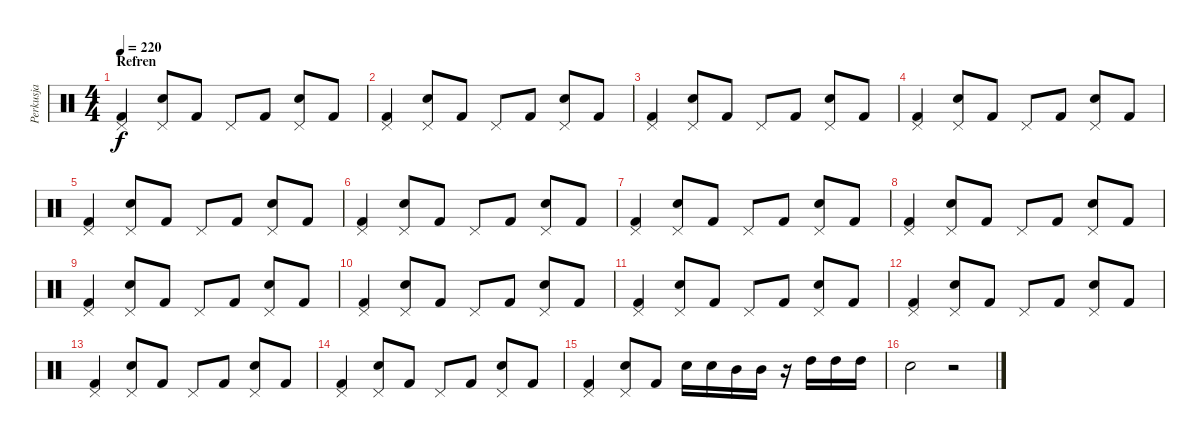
\track ("Perkusja" "Perkusja") {instrument percussion}
\staff {score}
\articulation defaults
\ts (4 4)
\section ("" "Refren")
\tempo 220
\clef neutral
\ks c
("Pedal Hi-Hat (hit)" "Kick (hit) 2").4{dy f} ("Pedal Hi-Hat (hit)" "Snare (hit) 2").8 "Kick (hit) 2".8 "Pedal Hi-Hat (hit)".8 "Kick (hit) 2".8 ("Pedal Hi-Hat (hit)" "Snare (hit) 2").8 "Kick (hit) 2".8 |
("Pedal Hi-Hat (hit)" "Kick (hit) 2").4 ("Pedal Hi-Hat (hit)" "Snare (hit) 2").8 "Kick (hit) 2".8 "Pedal Hi-Hat (hit)".8 "Kick (hit) 2".8 ("Pedal Hi-Hat (hit)" "Snare (hit) 2").8 "Kick (hit) 2".8 |
("Pedal Hi-Hat (hit)" "Kick (hit) 2").4 ("Pedal Hi-Hat (hit)" "Snare (hit) 2").8 "Kick (hit) 2".8 "Pedal Hi-Hat (hit)".8 "Kick (hit) 2".8 ("Pedal Hi-Hat (hit)" "Snare (hit) 2").8 "Kick (hit) 2".8 |
("Pedal Hi-Hat (hit)" "Kick (hit) 2").4 ("Pedal Hi-Hat (hit)" "Snare (hit) 2").8 "Kick (hit) 2".8 "Pedal Hi-Hat (hit)".8 "Kick (hit) 2".8 ("Pedal Hi-Hat (hit)" "Snare (hit) 2").8 "Kick (hit) 2".8 |
("Pedal Hi-Hat (hit)" "Kick (hit) 2").4 ("Pedal Hi-Hat (hit)" "Snare (hit) 2").8 "Kick (hit) 2".8 "Pedal Hi-Hat (hit)".8 "Kick (hit) 2".8 ("Pedal Hi-Hat (hit)" "Snare (hit) 2").8 "Kick (hit) 2".8 |
("Pedal Hi-Hat (hit)" "Kick (hit) 2").4 ("Pedal Hi-Hat (hit)" "Snare (hit) 2").8 "Kick (hit) 2".8 "Pedal Hi-Hat (hit)".8 "Kick (hit) 2".8 ("Pedal Hi-Hat (hit)" "Snare (hit) 2").8 "Kick (hit) 2".8 |
("Pedal Hi-Hat (hit)" "Kick (hit) 2").4 ("Pedal Hi-Hat (hit)" "Snare (hit) 2").8 "Kick (hit) 2".8 "Pedal Hi-Hat (hit)".8 "Kick (hit) 2".8 ("Pedal Hi-Hat (hit)" "Snare (hit) 2").8 "Kick (hit) 2".8 |
("Pedal Hi-Hat (hit)" "Kick (hit) 2").4 ("Pedal Hi-Hat (hit)" "Snare (hit) 2").8 "Kick (hit) 2".8 "Pedal Hi-Hat (hit)".8 "Kick (hit) 2".8 ("Pedal Hi-Hat (hit)" "Snare (hit) 2").8 "Kick (hit) 2".8 |
("Pedal Hi-Hat (hit)" "Kick (hit) 2").4 ("Pedal Hi-Hat (hit)" "Snare (hit) 2").8 "Kick (hit) 2".8 "Pedal Hi-Hat (hit)".8 "Kick (hit) 2".8 ("Pedal Hi-Hat (hit)" "Snare (hit) 2").8 "Kick (hit) 2".8 |
("Pedal Hi-Hat (hit)" "Kick (hit) 2").4 ("Pedal Hi-Hat (hit)" "Snare (hit) 2").8 "Kick (hit) 2".8 "Pedal Hi-Hat (hit)".8 "Kick (hit) 2".8 ("Pedal Hi-Hat (hit)" "Snare (hit) 2").8 "Kick (hit) 2".8 |
("Pedal Hi-Hat (hit)" "Kick (hit) 2").4 ("Pedal Hi-Hat (hit)" "Snare (hit) 2").8 "Kick (hit) 2".8 "Pedal Hi-Hat (hit)".8 "Kick (hit) 2".8 ("Pedal Hi-Hat (hit)" "Snare (hit) 2").8 "Kick (hit) 2".8 |
("Pedal Hi-Hat (hit)" "Kick (hit) 2").4 ("Pedal Hi-Hat (hit)" "Snare (hit) 2").8 "Kick (hit) 2".8 "Pedal Hi-Hat (hit)".8 "Kick (hit) 2".8 ("Pedal Hi-Hat (hit)" "Snare (hit) 2").8 "Kick (hit) 2".8 |
("Pedal Hi-Hat (hit)" "Kick (hit) 2").4 ("Pedal Hi-Hat (hit)" "Snare (hit) 2").8 "Kick (hit) 2".8 "Pedal Hi-Hat (hit)".8 "Kick (hit) 2".8 ("Pedal Hi-Hat (hit)" "Snare (hit) 2").8 "Kick (hit) 2".8 |
("Pedal Hi-Hat (hit)" "Kick (hit) 2").4 ("Pedal Hi-Hat (hit)" "Snare (hit) 2").8 "Kick (hit) 2".8 "Pedal Hi-Hat (hit)".8 "Kick (hit) 2".8 ("Pedal Hi-Hat (hit)" "Snare (hit) 2").8 "Kick (hit) 2".8 |
("Pedal Hi-Hat (hit)" "Kick (hit) 2").4 ("Pedal Hi-Hat (hit)" "Snare (hit) 2").8 "Kick (hit) 2".8 "Snare (hit) 2".16 "Snare (hit) 2".16 "Mid Tom (hit)".16 "Mid Tom (hit)".16 r.16 "High Tom (hit)".16 "High Tom (hit)".16 "High Tom (hit)".16 |
"Snare (hit) 2".2 r.2
